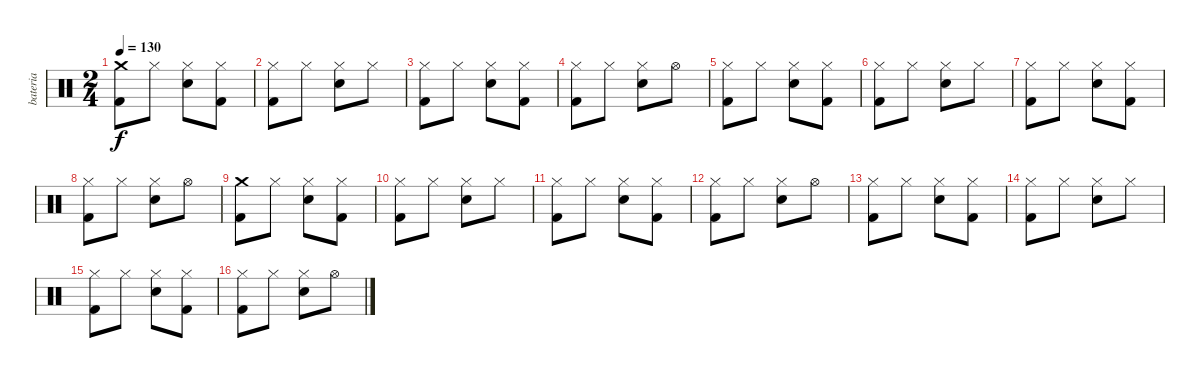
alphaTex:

\track ("bateria" "bateria") {instrument percussion}
\staff {score}
\articulation defaults
\ts (2 4)
\tempo 130
\clef neutral
\ks c
("Crash medium (hit)" "Kick (hit) 2").8{dy f} "Hi-Hat (closed)".8 ("Hi-Hat (closed)" "Electric Snare (hit)").8 ("Hi-Hat (closed)" "Kick (hit) 2").8 |
("Hi-Hat (closed)" "Kick (hit) 2").8 "Hi-Hat (closed)".8 ("Hi-Hat (closed)" "Electric Snare (hit)").8 "Hi-Hat (closed)".8 |
("Hi-Hat (closed)" "Kick (hit) 2").8 "Hi-Hat (closed)".8 ("Hi-Hat (closed)" "Electric Snare (hit)").8 ("Hi-Hat (closed)" "Kick (hit) 2").8 |
("Hi-Hat (closed)" "Kick (hit) 2").8 "Hi-Hat (closed)".8 ("Hi-Hat (closed)" "Electric Snare (hit)").8 "Hi-Hat (open)".8 |
("Hi-Hat (closed)" "Kick (hit) 2").8 "Hi-Hat (closed)".8 ("Hi-Hat (closed)" "Electric Snare (hit)").8 ("Hi-Hat (closed)" "Kick (hit) 2").8 |
("Hi-Hat (closed)" "Kick (hit) 2").8 "Hi-Hat (closed)".8 ("Hi-Hat (closed)" "Electric Snare (hit)").8 "Hi-Hat (closed)".8 |
("Hi-Hat (closed)" "Kick (hit) 2").8 "Hi-Hat (closed)".8 ("Hi-Hat (closed)" "Electric Snare (hit)").8 ("Hi-Hat (closed)" "Kick (hit) 2").8 |
("Hi-Hat (closed)" "Kick (hit) 2").8 "Hi-Hat (closed)".8 ("Hi-Hat (closed)" "Electric Snare (hit)").8 "Hi-Hat (open)".8 |
("Crash medium (hit)" "Kick (hit) 2").8 "Hi-Hat (closed)".8 ("Hi-Hat (closed)" "Electric Snare (hit)").8 ("Hi-Hat (closed)" "Kick (hit) 2").8 |
("Hi-Hat (closed)" "Kick (hit) 2").8 "Hi-Hat (closed)".8 ("Hi-Hat (closed)" "Electric Snare (hit)").8 "Hi-Hat (closed)".8 |
("Hi-Hat (closed)" "Kick (hit) 2").8 "Hi-Hat (closed)".8 ("Hi-Hat (closed)" "Electric Snare (hit)").8 ("Hi-Hat (closed)" "Kick (hit) 2").8 |
("Hi-Hat (closed)" "Kick (hit) 2").8 "Hi-Hat (closed)".8 ("Hi-Hat (closed)" "Electric Snare (hit)").8 "Hi-Hat (open)".8 |
("Hi-Hat (closed)" "Kick (hit) 2").8 "Hi-Hat (closed)".8 ("Hi-Hat (closed)" "Electric Snare (hit)").8 ("Hi-Hat (closed)" "Kick (hit) 2").8 |
("Hi-Hat (closed)" "Kick (hit) 2").8 "Hi-Hat (closed)".8 ("Hi-Hat (closed)" "Electric Snare (hit)").8 "Hi-Hat (closed)".8 |
("Hi-Hat (closed)" "Kick (hit) 2").8 "Hi-Hat (closed)".8 ("Hi-Hat (closed)" "Electric Snare (hit)").8 ("Hi-Hat (closed)" "Kick (hit) 2").8 |
("Hi-Hat (closed)" "Kick (hit) 2").8 "Hi-Hat (closed)".8 ("Hi-Hat (closed)" "Electric Snare (hit)").8 "Hi-Hat (open)".8
